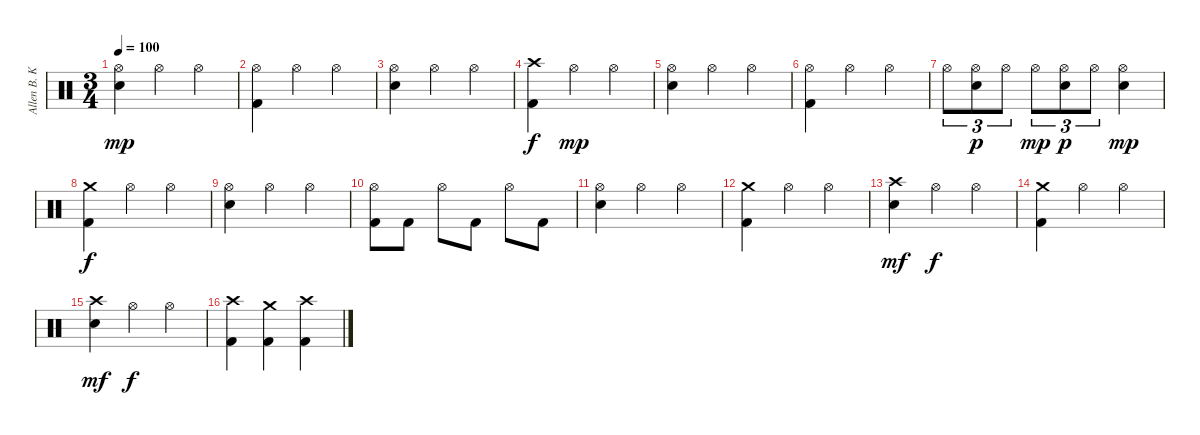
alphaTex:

\track ("Allen B. Konstanz (Drums)" "Allen B. K") {instrument percussion}
\staff {score}
\articulation defaults
\ts (3 4)
\tempo 100
\clef neutral
\ks c
("Hi-Hat (open)" "Snare (hit) 2").4{dy mp} "Hi-Hat (open)".4 "Hi-Hat (open)".4 |
("Hi-Hat (open)" "Kick (hit) 2").4 "Hi-Hat (open)".4 "Hi-Hat (open)".4 |
("Hi-Hat (open)" "Snare (hit) 2").4 "Hi-Hat (open)".4 "Hi-Hat (open)".4 |
("Crash high (hit)" "Kick (hit) 2").4{dy f} "Hi-Hat (open)".4{dy mp} "Hi-Hat (open)".4 |
("Hi-Hat (open)" "Snare (hit) 2").4 "Hi-Hat (open)".4 "Hi-Hat (open)".4 |
("Hi-Hat (open)" "Kick (hit) 2").4 "Hi-Hat (open)".4 "Hi-Hat (open)".4 |
"Hi-Hat (open)".8{tu (3 2)} ("Hi-Hat (open)" "Snare (hit) 2").8{tu (3 2) dy p} "Hi-Hat (open)".8{tu (3 2)} "Hi-Hat (open)".8{tu (3 2) dy mp} ("Hi-Hat (open)" "Snare (hit) 2").8{tu (3 2) dy p} "Hi-Hat (open)".8{tu (3 2)} ("Hi-Hat (open)" "Snare (hit) 2").4{dy mp} |
("Crash medium (hit)" "Kick (hit) 2").4{dy f} "Hi-Hat (open)".4 "Hi-Hat (open)".4 |
("Hi-Hat (open)" "Snare (hit) 2").4 "Hi-Hat (open)".4 "Hi-Hat (open)".4 |
("Hi-Hat (open)" "Kick (hit) 2").8 "Kick (hit) 2".8 "Hi-Hat (open)".8 "Kick (hit) 2".8 "Hi-Hat (open)".8 "Kick (hit) 2".8 |
("Hi-Hat (open)" "Snare (hit) 2").4 "Hi-Hat (open)".4 "Hi-Hat (open)".4 |
("Crash medium (hit)" "Kick (hit) 2").4 "Hi-Hat (open)".4 "Hi-Hat (open)".4 |
("Crash high (hit)" "Snare (hit) 2").4{dy mf} "Hi-Hat (open)".4{dy f} "Hi-Hat (open)".4 |
("Crash medium (hit)" "Kick (hit) 2").4 "Hi-Hat (open)".4 "Hi-Hat (open)".4 |
("Crash high (hit)" "Snare (hit) 2").4{dy mf} "Hi-Hat (open)".4{dy f} "Hi-Hat (open)".4 |
("Crash high (hit)" "Kick (hit) 2").4 ("Crash medium (hit)" "Kick (hit) 2").4 ("Crash high (hit)" "Kick (hit) 2").4
